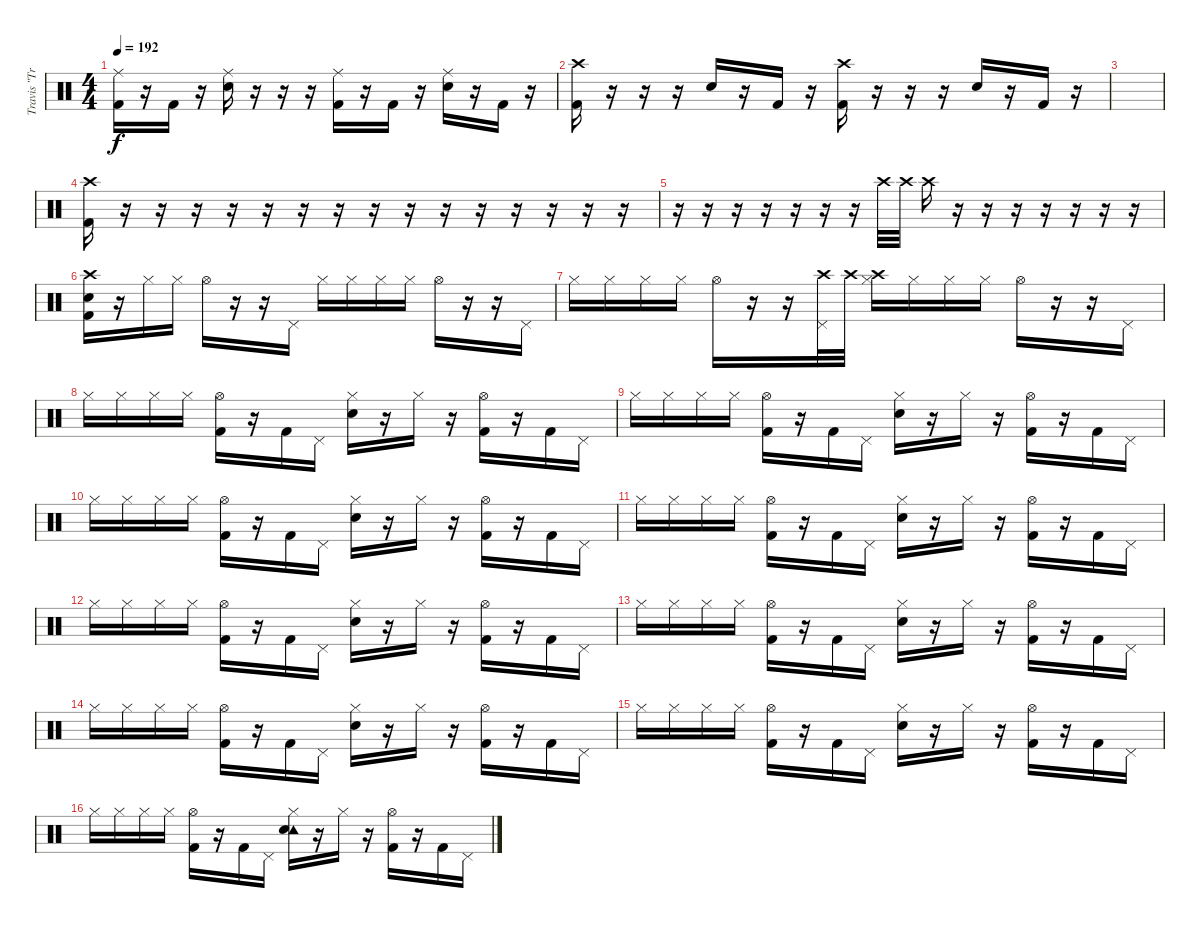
\track ("Travis \"Trevor\" Barker" "Travis \"Tr") {instrument percussion}
\staff {score}
\articulation defaults
\ts (4 4)
\tempo 192
\clef neutral
\ks c
("Ride (middle)" "Kick (hit) 2").16{dy f} r.16 "Kick (hit) 2".16 r.16 ("Ride (middle)" "Snare (hit) 2").16 r.16 r.16 r.16 ("Ride (middle)" "Kick (hit) 2").16 r.16 "Kick (hit) 2".16 r.16 ("Ride (middle)" "Snare (hit) 2").16 r.16 "Kick (hit) 2".16 r.16 |
("Crash high (hit)" "Kick (hit) 2").16 r.16 r.16 r.16 "Snare (hit) 2".16 r.16 "Kick (hit) 2".16 r.16 ("Crash high (hit)" "Kick (hit) 2").16 r.16 r.16 r.16 "Snare (hit) 2".16 r.16 "Kick (hit) 2".16 r.16 |
|
("Crash high (hit)" "Kick (hit) 2").16 r.16 r.16 r.16 r.16 r.16 r.16 r.16 r.16 r.16 r.16 r.16 r.16 r.16 r.16 r.16 |
r.16 r.16 r.16 r.16 r.16 r.16 r.16 "Crash high (hit)".32 "Crash high (hit)".32 "Crash high (hit)".16 r.16 r.16 r.16 r.16 r.16 r.16 r.16 |
("Crash high (hit)" "Snare (hit) 2" "Kick (hit) 2").16 r.16 "Hi-Hat (closed)".16 "Hi-Hat (closed)".16 "Hi-Hat (open)".16 r.16 r.16 "Pedal Hi-Hat (hit)".16 "Hi-Hat (closed)".16 "Hi-Hat (closed)".16 "Hi-Hat (closed)".16 "Hi-Hat (closed)".16 "Hi-Hat (open)".16 r.16 r.16 "Pedal Hi-Hat (hit)".16 |
"Hi-Hat (closed)".16 "Hi-Hat (closed)".16 "Hi-Hat (closed)".16 "Hi-Hat (closed)".16 "Hi-Hat (open)".16 r.16 r.16 ("Crash high (hit)" "Pedal Hi-Hat (hit)").32 "Crash high (hit)".32 ("Crash high (hit)" "Hi-Hat (closed)").16 "Hi-Hat (closed)".16 "Hi-Hat (closed)".16 "Hi-Hat (closed)".16 "Hi-Hat (open)".16 r.16 r.16 "Pedal Hi-Hat (hit)".16 |
"Hi-Hat (closed)".16 "Hi-Hat (closed)".16 "Hi-Hat (closed)".16 "Hi-Hat (closed)".16 ("Hi-Hat (open)" "Kick (hit) 2").16 r.16 "Kick (hit) 2".16 "Pedal Hi-Hat (hit)".16 ("Hi-Hat (closed)" "Snare (hit) 2").16 r.16 "Hi-Hat (closed)".16 r.16 ("Hi-Hat (open)" "Kick (hit) 2").16 r.16 "Kick (hit) 2".16 "Pedal Hi-Hat (hit)".16 |
"Hi-Hat (closed)".16 "Hi-Hat (closed)".16 "Hi-Hat (closed)".16 "Hi-Hat (closed)".16 ("Hi-Hat (open)" "Kick (hit) 2").16 r.16 "Kick (hit) 2".16 "Pedal Hi-Hat (hit)".16 ("Hi-Hat (closed)" "Snare (hit) 2").16 r.16 "Hi-Hat (closed)".16 r.16 ("Hi-Hat (open)" "Kick (hit) 2").16 r.16 "Kick (hit) 2".16 "Pedal Hi-Hat (hit)".16 |
"Hi-Hat (closed)".16 "Hi-Hat (closed)".16 "Hi-Hat (closed)".16 "Hi-Hat (closed)".16 ("Hi-Hat (open)" "Kick (hit) 2").16 r.16 "Kick (hit) 2".16 "Pedal Hi-Hat (hit)".16 ("Hi-Hat (closed)" "Snare (hit) 2").16 r.16 "Hi-Hat (closed)".16 r.16 ("Hi-Hat (open)" "Kick (hit) 2").16 r.16 "Kick (hit) 2".16 "Pedal Hi-Hat (hit)".16 |
"Hi-Hat (closed)".16 "Hi-Hat (closed)".16 "Hi-Hat (closed)".16 "Hi-Hat (closed)".16 ("Hi-Hat (open)" "Kick (hit) 2").16 r.16 "Kick (hit) 2".16 "Pedal Hi-Hat (hit)".16 ("Hi-Hat (closed)" "Snare (hit) 2").16 r.16 "Hi-Hat (closed)".16 r.16 ("Hi-Hat (open)" "Kick (hit) 2").16 r.16 "Kick (hit) 2".16 "Pedal Hi-Hat (hit)".16 |
"Hi-Hat (closed)".16 "Hi-Hat (closed)".16 "Hi-Hat (closed)".16 "Hi-Hat (closed)".16 ("Hi-Hat (open)" "Kick (hit) 2").16 r.16 "Kick (hit) 2".16 "Pedal Hi-Hat (hit)".16 ("Hi-Hat (closed)" "Snare (hit) 2").16 r.16 "Hi-Hat (closed)".16 r.16 ("Hi-Hat (open)" "Kick (hit) 2").16 r.16 "Kick (hit) 2".16 "Pedal Hi-Hat (hit)".16 |
"Hi-Hat (closed)".16 "Hi-Hat (closed)".16 "Hi-Hat (closed)".16 "Hi-Hat (closed)".16 ("Hi-Hat (open)" "Kick (hit) 2").16 r.16 "Kick (hit) 2".16 "Pedal Hi-Hat (hit)".16 ("Hi-Hat (closed)" "Snare (hit) 2").16 r.16 "Hi-Hat (closed)".16 r.16 ("Hi-Hat (open)" "Kick (hit) 2").16 r.16 "Kick (hit) 2".16 "Pedal Hi-Hat (hit)".16 |
"Hi-Hat (closed)".16 "Hi-Hat (closed)".16 "Hi-Hat (closed)".16 "Hi-Hat (closed)".16 ("Hi-Hat (open)" "Kick (hit) 2").16 r.16 "Kick (hit) 2".16 "Pedal Hi-Hat (hit)".16 ("Hi-Hat (closed)" "Snare (hit) 2").16 r.16 "Hi-Hat (closed)".16 r.16 ("Hi-Hat (open)" "Kick (hit) 2").16 r.16 "Kick (hit) 2".16 "Pedal Hi-Hat (hit)".16 |
"Hi-Hat (closed)".16 "Hi-Hat (closed)".16 "Hi-Hat (closed)".16 "Hi-Hat (closed)".16 ("Hi-Hat (open)" "Kick (hit) 2").16 r.16 "Kick (hit) 2".16 "Pedal Hi-Hat (hit)".16 ("Hi-Hat (closed)" "Snare (hit) 2").16 r.16 "Hi-Hat (closed)".16 r.16 ("Hi-Hat (open)" "Kick (hit) 2").16 r.16 "Kick (hit) 2".16 "Pedal Hi-Hat (hit)".16 |
"Hi-Hat (closed)".16 "Hi-Hat (closed)".16 "Hi-Hat (closed)".16 "Hi-Hat (closed)".16 ("Hi-Hat (open)" "Kick (hit) 2").16 r.16 "Kick (hit) 2".16 "Pedal Hi-Hat (hit)".16 ("Tambourine (hit)" "Hi-Hat (closed)" "Snare (hit) 2").16 r.16 "Hi-Hat (closed)".16 r.16 ("Hi-Hat (open)" "Kick (hit) 2").16 r.16 "Kick (hit) 2".16 "Pedal Hi-Hat (hit)".16
